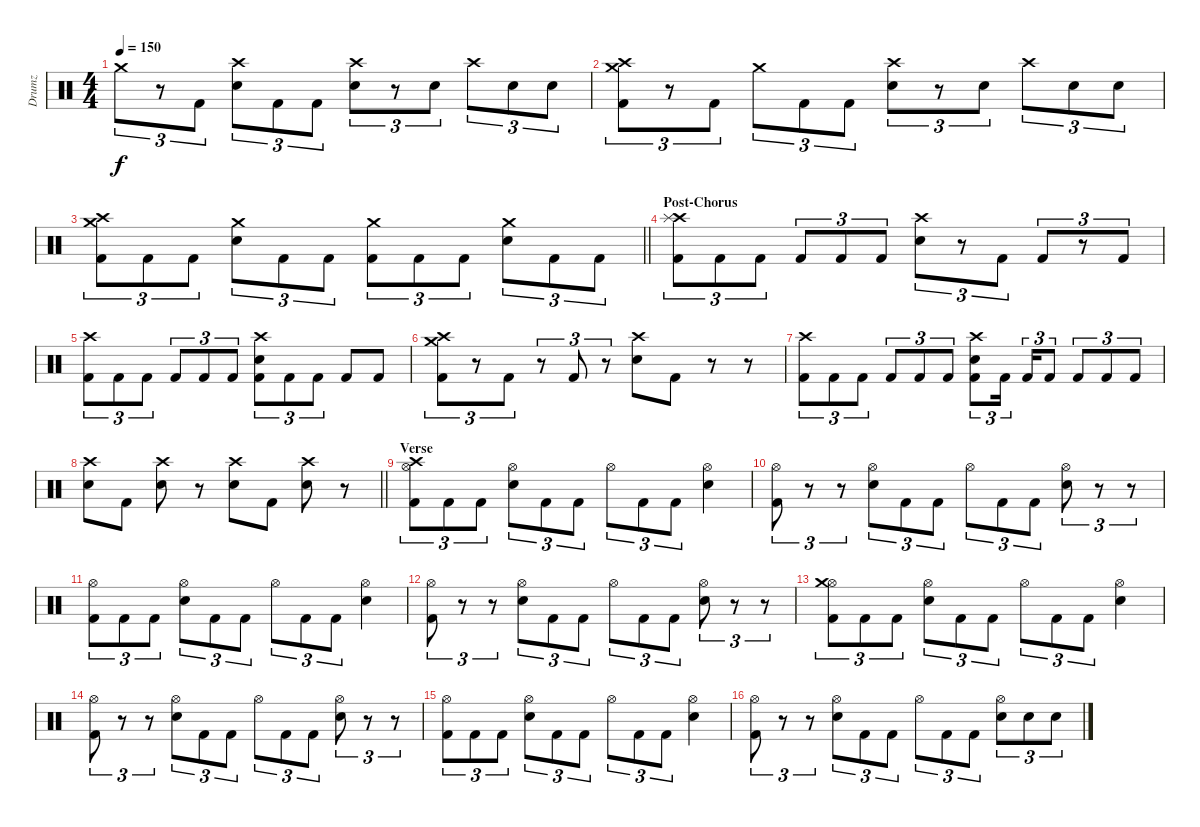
\track ("Drumz" "Drumz") {instrument percussion}
\staff {score}
\articulation defaults
\ts (4 4)
\tempo 150
\clef neutral
\ks c "Crash medium (hit)".8{tu (3 2) dy f}
r.8{tu (3 2)} "Kick (hit) 2".8{tu (3 2)} ("Snare (hit) 2" "Crash high (hit)").8{tu (3 2)} "Kick (hit) 2".8{tu (3 2)} "Kick (hit) 2".8{tu (3 2)} ("Crash high (hit)" "Snare (hit) 2").8{tu (3 2)} r.8{tu (3 2)} "Snare (hit) 2".8{tu (3 2)} "Crash high (hit)".8{tu (3 2)} "Snare (hit) 2".8{tu (3 2)} "Snare (hit) 2".8{tu (3 2)} |
("Crash medium (hit)" "Crash high (hit)" "Kick (hit) 2").8{tu (3 2)} r.8{tu (3 2)} "Kick (hit) 2".8{tu (3 2)} "Crash medium (hit)".8{tu (3 2)} "Kick (hit) 2".8{tu (3 2)} "Kick (hit) 2".8{tu (3 2)} ("Crash high (hit)" "Snare (hit) 2").8{tu (3 2)} r.8{tu (3 2)} "Snare (hit) 2".8{tu (3 2)} "Crash high (hit)".8{tu (3 2)} "Snare (hit) 2".8{tu (3 2)} "Snare (hit) 2".8{tu (3 2)} |
\barLineRight lightlight
("Crash medium (hit)" "Crash high (hit)" "Kick (hit) 2").8{tu (3 2)} "Kick (hit) 2".8{tu (3 2)} "Kick (hit) 2".8{tu (3 2)} ("Crash medium (hit)" "Snare (hit) 2").8{tu (3 2)} "Kick (hit) 2".8{tu (3 2)} "Kick (hit) 2".8{tu (3 2)} ("Kick (hit) 2" "Crash medium (hit)").8{tu (3 2)} "Kick (hit) 2".8{tu (3 2)} "Kick (hit) 2".8{tu (3 2)} ("Crash medium (hit)" "Snare (hit) 2").8{tu (3 2)} "Kick (hit) 2".8{tu (3 2)} "Kick (hit) 2".8{tu (3 2)} |
\section ("" "Post-Chorus")
("Kick (hit) 2" "Crash high (hit)" "Splash (hit)").8{tu (3 2)} "Kick (hit) 2".8{tu (3 2)} "Kick (hit) 2".8{tu (3 2)} "Kick (hit) 2".8{tu (3 2)} "Kick (hit) 2".8{tu (3 2)} "Kick (hit) 2".8{tu (3 2)} ("Crash high (hit)" "Snare (hit) 2").8{tu (3 2)} r.8{tu (3 2)} "Kick (hit) 2".8{tu (3 2)} "Kick (hit) 2".8{tu (3 2)} r.8{tu (3 2)} "Kick (hit) 2".8{tu (3 2)} |
("Kick (hit) 2" "Crash high (hit)").8{tu (3 2)} "Kick (hit) 2".8{tu (3 2)} "Kick (hit) 2".8{tu (3 2)} "Kick (hit) 2".8{tu (3 2)} "Kick (hit) 2".8{tu (3 2)} "Kick (hit) 2".8{tu (3 2)} ("Crash high (hit)" "Snare (hit) 2" "Kick (hit) 2").8{tu (3 2)} "Kick (hit) 2".8{tu (3 2)} "Kick (hit) 2".8{tu (3 2)} "Kick (hit) 2".8 "Kick (hit) 2".8 |
("Crash high (hit)" "Kick (hit) 2" "Crash medium (hit)").8{tu (3 2)} r.8{tu (3 2)} "Kick (hit) 2".8{tu (3 2)} r.8{tu (3 2)} "Kick (hit) 2".8{tu (3 2)} r.8{tu (3 2)} ("Crash high (hit)" "Snare (hit) 2").8 "Kick (hit) 2".8 r.8 r.8 |
("Kick (hit) 2" "Crash high (hit)").8{tu (3 2)} "Kick (hit) 2".8{tu (3 2)} "Kick (hit) 2".8{tu (3 2)} "Kick (hit) 2".8{tu (3 2)} "Kick (hit) 2".8{tu (3 2)} "Kick (hit) 2".8{tu (3 2)} ("Crash high (hit)" "Snare (hit) 2" "Kick (hit) 2").8{tu (3 2)} "Kick (hit) 2".16{tu (3 2) beam splitsecondary} "Kick (hit) 2".16{tu (3 2)} "Kick (hit) 2".8{tu (3 2)} "Kick (hit) 2".8{tu (3 2)} "Kick (hit) 2".8{tu (3 2)} "Kick (hit) 2".8{tu (3 2)} |
\barLineRight lightlight
("Crash high (hit)" "Electric Snare (hit)").8 "Kick (hit) 2".8 ("Crash high (hit)" "Electric Snare (hit)").8 r.8 ("Crash high (hit)" "Electric Snare (hit)").8 "Kick (hit) 2".8 ("Crash high (hit)" "Electric Snare (hit)").8 r.8 |
\section ("" "Verse")
("Hi-Hat (open)" "Kick (hit) 2" "Crash high (hit)").8{tu (3 2)} "Kick (hit) 2".8{tu (3 2)} "Kick (hit) 2".8{tu (3 2)} ("Hi-Hat (open)" "Snare (hit) 2").8{tu (3 2)} "Kick (hit) 2".8{tu (3 2)} "Kick (hit) 2".8{tu (3 2)} "Hi-Hat (open)".8{tu (3 2)} "Kick (hit) 2".8{tu (3 2)} "Kick (hit) 2".8{tu (3 2)} ("Hi-Hat (open)" "Snare (hit) 2").4 |
("Hi-Hat (open)" "Kick (hit) 2").8{tu (3 2)} r.8{tu (3 2)} r.8{tu (3 2)} ("Hi-Hat (open)" "Snare (hit) 2").8{tu (3 2)} "Kick (hit) 2".8{tu (3 2)} "Kick (hit) 2".8{tu (3 2)} "Hi-Hat (open)".8{tu (3 2)} "Kick (hit) 2".8{tu (3 2)} "Kick (hit) 2".8{tu (3 2)} ("Hi-Hat (open)" "Snare (hit) 2").8{tu (3 2)} r.8{tu (3 2)} r.8{tu (3 2)} |
("Hi-Hat (open)" "Kick (hit) 2").8{tu (3 2)} "Kick (hit) 2".8{tu (3 2)} "Kick (hit) 2".8{tu (3 2)} ("Hi-Hat (open)" "Snare (hit) 2").8{tu (3 2)} "Kick (hit) 2".8{tu (3 2)} "Kick (hit) 2".8{tu (3 2)} "Hi-Hat (open)".8{tu (3 2)} "Kick (hit) 2".8{tu (3 2)} "Kick (hit) 2".8{tu (3 2)} ("Hi-Hat (open)" "Snare (hit) 2").4 |
("Hi-Hat (open)" "Kick (hit) 2").8{tu (3 2)} r.8{tu (3 2)} r.8{tu (3 2)} ("Hi-Hat (open)" "Snare (hit) 2").8{tu (3 2)} "Kick (hit) 2".8{tu (3 2)} "Kick (hit) 2".8{tu (3 2)} "Hi-Hat (open)".8{tu (3 2)} "Kick (hit) 2".8{tu (3 2)} "Kick (hit) 2".8{tu (3 2)} ("Hi-Hat (open)" "Snare (hit) 2").8{tu (3 2)} r.8{tu (3 2)} r.8{tu (3 2)} |
("Kick (hit) 2" "Hi-Hat (open)" "Crash medium (hit)").8{tu (3 2)} "Kick (hit) 2".8{tu (3 2)} "Kick (hit) 2".8{tu (3 2)} ("Hi-Hat (open)" "Snare (hit) 2").8{tu (3 2)} "Kick (hit) 2".8{tu (3 2)} "Kick (hit) 2".8{tu (3 2)} "Hi-Hat (open)".8{tu (3 2)} "Kick (hit) 2".8{tu (3 2)} "Kick (hit) 2".8{tu (3 2)} ("Hi-Hat (open)" "Snare (hit) 2").4 |
("Hi-Hat (open)" "Kick (hit) 2").8{tu (3 2)} r.8{tu (3 2)} r.8{tu (3 2)} ("Hi-Hat (open)" "Snare (hit) 2").8{tu (3 2)} "Kick (hit) 2".8{tu (3 2)} "Kick (hit) 2".8{tu (3 2)} "Hi-Hat (open)".8{tu (3 2)} "Kick (hit) 2".8{tu (3 2)} "Kick (hit) 2".8{tu (3 2)} ("Hi-Hat (open)" "Snare (hit) 2").8{tu (3 2)} r.8{tu (3 2)} r.8{tu (3 2)} |
("Hi-Hat (open)" "Kick (hit) 2").8{tu (3 2)} "Kick (hit) 2".8{tu (3 2)} "Kick (hit) 2".8{tu (3 2)} ("Hi-Hat (open)" "Snare (hit) 2").8{tu (3 2)} "Kick (hit) 2".8{tu (3 2)} "Kick (hit) 2".8{tu (3 2)} "Hi-Hat (open)".8{tu (3 2)} "Kick (hit) 2".8{tu (3 2)} "Kick (hit) 2".8{tu (3 2)} ("Hi-Hat (open)" "Snare (hit) 2").4 |
("Hi-Hat (open)" "Kick (hit) 2").8{tu (3 2)} r.8{tu (3 2)} r.8{tu (3 2)} ("Hi-Hat (open)" "Snare (hit) 2").8{tu (3 2)} "Kick (hit) 2".8{tu (3 2)} "Kick (hit) 2".8{tu (3 2)} "Hi-Hat (open)".8{tu (3 2)} "Kick (hit) 2".8{tu (3 2)} "Kick (hit) 2".8{tu (3 2)} ("Hi-Hat (open)" "Snare (hit) 2").8{tu (3 2)} "Snare (hit) 2".8{tu (3 2)} "Snare (hit) 2".8{tu (3 2)}
